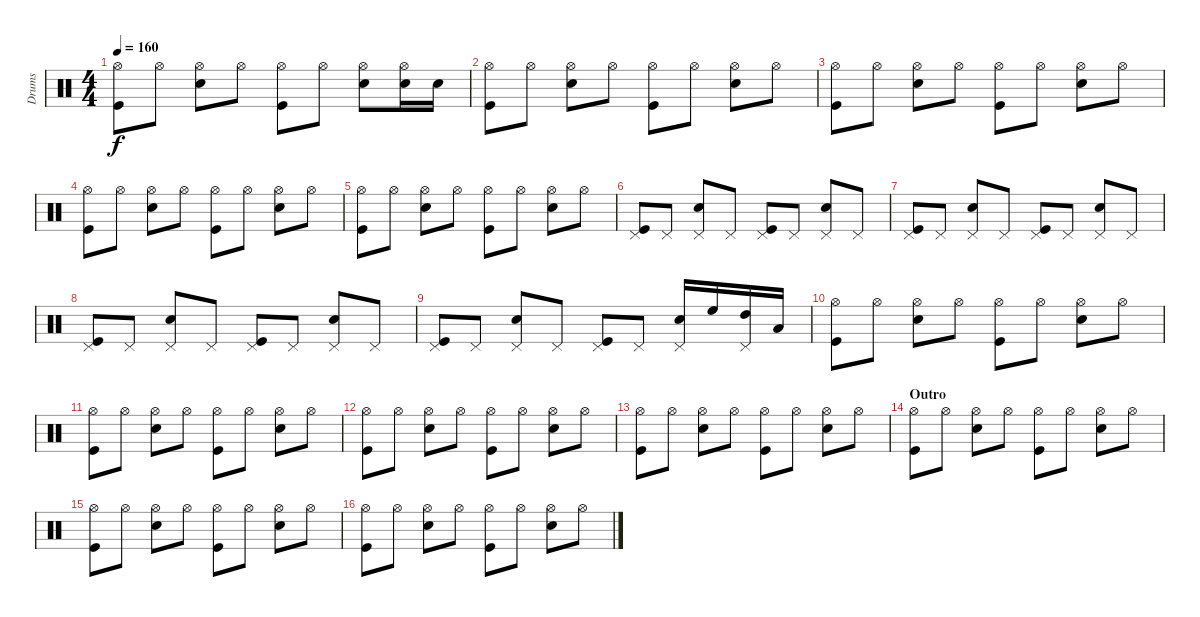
\track ("Drums" "Drums") {instrument percussion}
\staff {score}
\articulation defaults
\ts (4 4)
\tempo 160
\clef neutral
\ks c
("Hi-Hat (open)" "Kick (hit)").8{dy f} "Hi-Hat (open)".8 ("Hi-Hat (open)" "Snare (hit) 2").8 "Hi-Hat (open)".8 ("Hi-Hat (open)" "Kick (hit)").8 "Hi-Hat (open)".8 ("Hi-Hat (open)" "Snare (hit) 2").8 ("Hi-Hat (open)" "Snare (hit) 2").16 "Snare (hit) 2".16 |
("Hi-Hat (open)" "Kick (hit)").8 "Hi-Hat (open)".8 ("Hi-Hat (open)" "Snare (hit) 2").8 "Hi-Hat (open)".8 ("Hi-Hat (open)" "Kick (hit)").8 "Hi-Hat (open)".8 ("Hi-Hat (open)" "Snare (hit) 2").8 "Hi-Hat (open)".8 |
("Hi-Hat (open)" "Kick (hit)").8 "Hi-Hat (open)".8 ("Hi-Hat (open)" "Snare (hit) 2").8 "Hi-Hat (open)".8 ("Hi-Hat (open)" "Kick (hit)").8 "Hi-Hat (open)".8 ("Hi-Hat (open)" "Snare (hit) 2").8 "Hi-Hat (open)".8 |
("Hi-Hat (open)" "Kick (hit)").8 "Hi-Hat (open)".8 ("Hi-Hat (open)" "Snare (hit) 2").8 "Hi-Hat (open)".8 ("Hi-Hat (open)" "Kick (hit)").8 "Hi-Hat (open)".8 ("Hi-Hat (open)" "Snare (hit) 2").8 "Hi-Hat (open)".8 |
("Hi-Hat (open)" "Kick (hit)").8 "Hi-Hat (open)".8 ("Hi-Hat (open)" "Snare (hit) 2").8 "Hi-Hat (open)".8 ("Hi-Hat (open)" "Kick (hit)").8 "Hi-Hat (open)".8 ("Hi-Hat (open)" "Snare (hit) 2").8 "Hi-Hat (open)".8 |
("Pedal Hi-Hat (hit)" "Kick (hit)").8 "Pedal Hi-Hat (hit)".8 ("Pedal Hi-Hat (hit)" "Snare (hit) 2").8 "Pedal Hi-Hat (hit)".8 ("Pedal Hi-Hat (hit)" "Kick (hit)").8 "Pedal Hi-Hat (hit)".8 ("Pedal Hi-Hat (hit)" "Snare (hit) 2").8 "Pedal Hi-Hat (hit)".8 |
("Pedal Hi-Hat (hit)" "Kick (hit)").8 "Pedal Hi-Hat (hit)".8 ("Pedal Hi-Hat (hit)" "Snare (hit) 2").8 "Pedal Hi-Hat (hit)".8 ("Pedal Hi-Hat (hit)" "Kick (hit)").8 "Pedal Hi-Hat (hit)".8 ("Pedal Hi-Hat (hit)" "Snare (hit) 2").8 "Pedal Hi-Hat (hit)".8 |
("Pedal Hi-Hat (hit)" "Kick (hit)").8 "Pedal Hi-Hat (hit)".8 ("Pedal Hi-Hat (hit)" "Snare (hit) 2").8 "Pedal Hi-Hat (hit)".8 ("Pedal Hi-Hat (hit)" "Kick (hit)").8 "Pedal Hi-Hat (hit)".8 ("Pedal Hi-Hat (hit)" "Snare (hit) 2").8 "Pedal Hi-Hat (hit)".8 |
("Pedal Hi-Hat (hit)" "Kick (hit)").8 "Pedal Hi-Hat (hit)".8 ("Pedal Hi-Hat (hit)" "Snare (hit) 2").8 "Pedal Hi-Hat (hit)".8 ("Pedal Hi-Hat (hit)" "Kick (hit)").8 "Pedal Hi-Hat (hit)".8 ("Pedal Hi-Hat (hit)" "Snare (hit) 2").16 "High Floor Tom (hit)".16 ("Pedal Hi-Hat (hit)" "High Tom (hit)").16 "Low Tom (hit)".16 |
("Hi-Hat (open)" "Kick (hit)").8 "Hi-Hat (open)".8 ("Hi-Hat (open)" "Snare (hit) 2").8 "Hi-Hat (open)".8 ("Hi-Hat (open)" "Kick (hit)").8 "Hi-Hat (open)".8 ("Hi-Hat (open)" "Snare (hit) 2").8 "Hi-Hat (open)".8 |
("Hi-Hat (open)" "Kick (hit)").8 "Hi-Hat (open)".8 ("Hi-Hat (open)" "Snare (hit) 2").8 "Hi-Hat (open)".8 ("Hi-Hat (open)" "Kick (hit)").8 "Hi-Hat (open)".8 ("Hi-Hat (open)" "Snare (hit) 2").8 "Hi-Hat (open)".8 |
("Hi-Hat (open)" "Kick (hit)").8 "Hi-Hat (open)".8 ("Hi-Hat (open)" "Snare (hit) 2").8 "Hi-Hat (open)".8 ("Hi-Hat (open)" "Kick (hit)").8 "Hi-Hat (open)".8 ("Hi-Hat (open)" "Snare (hit) 2").8 "Hi-Hat (open)".8 |
("Hi-Hat (open)" "Kick (hit)").8 "Hi-Hat (open)".8 ("Hi-Hat (open)" "Snare (hit) 2").8 "Hi-Hat (open)".8 ("Hi-Hat (open)" "Kick (hit)").8 "Hi-Hat (open)".8 ("Hi-Hat (open)" "Snare (hit) 2").8 "Hi-Hat (open)".8 |
\section ("" "Outro")
("Hi-Hat (open)" "Kick (hit)").8 "Hi-Hat (open)".8 ("Hi-Hat (open)" "Snare (hit) 2").8 "Hi-Hat (open)".8 ("Hi-Hat (open)" "Kick (hit)").8 "Hi-Hat (open)".8 ("Hi-Hat (open)" "Snare (hit) 2").8 "Hi-Hat (open)".8 |
("Hi-Hat (open)" "Kick (hit)").8 "Hi-Hat (open)".8 ("Hi-Hat (open)" "Snare (hit) 2").8 "Hi-Hat (open)".8 ("Hi-Hat (open)" "Kick (hit)").8 "Hi-Hat (open)".8 ("Hi-Hat (open)" "Snare (hit) 2").8 "Hi-Hat (open)".8 |
("Hi-Hat (open)" "Kick (hit)").8 "Hi-Hat (open)".8 ("Hi-Hat (open)" "Snare (hit) 2").8 "Hi-Hat (open)".8 ("Hi-Hat (open)" "Kick (hit)").8 "Hi-Hat (open)".8 ("Hi-Hat (open)" "Snare (hit) 2").8 "Hi-Hat (open)".8
